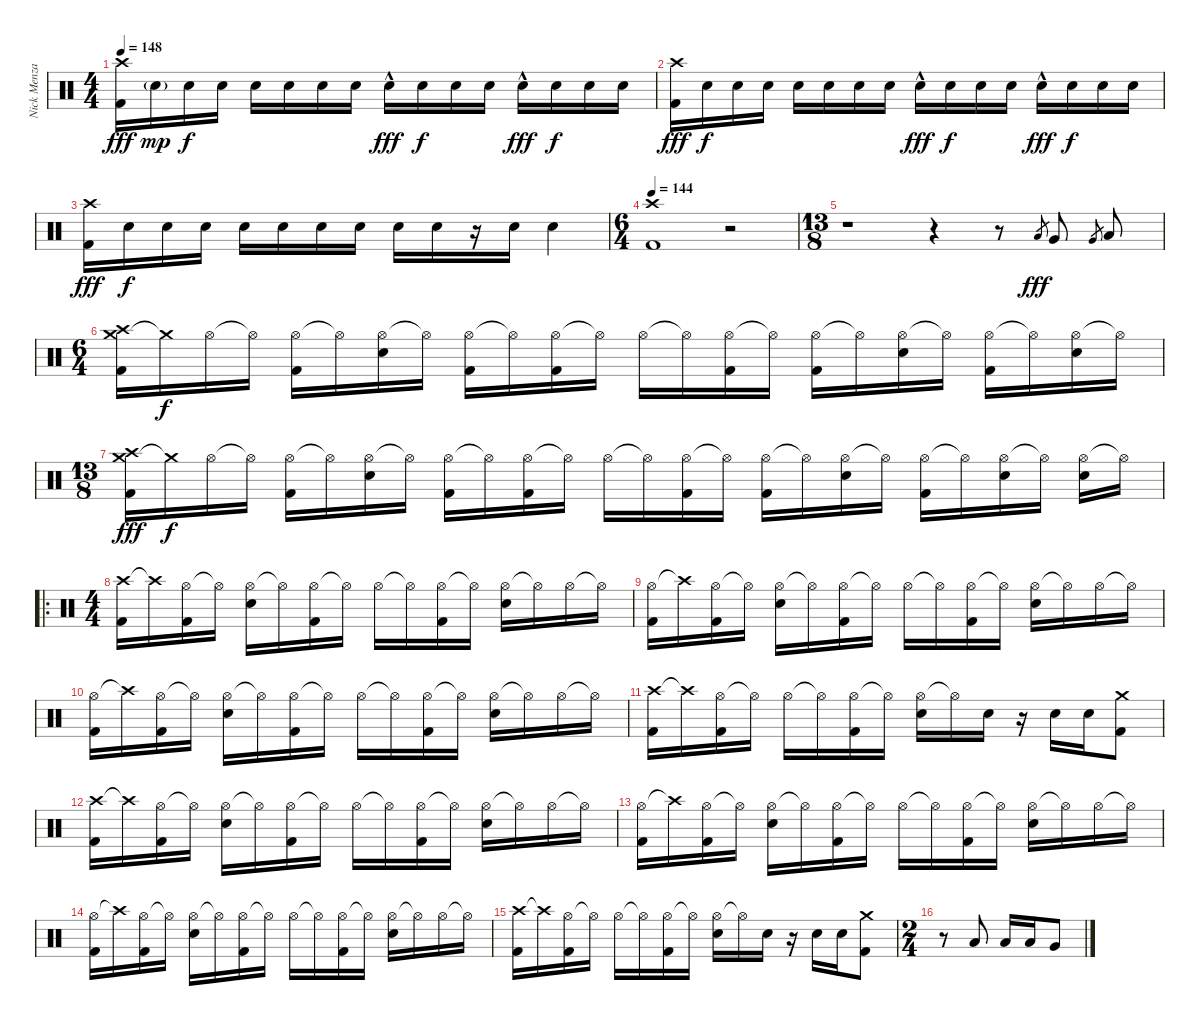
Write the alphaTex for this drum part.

\track ("Nick Menza" "Nick Menza") {instrument percussion}
\staff {score}
\articulation defaults
\ts (4 4)
\tempo 148
\clef neutral
\ks c
("Crash high (hit)" "Kick (hit) 2").16{dy fff} "Electric Snare (hit)"{g}.16{dy mp} "Electric Snare (hit)".16{dy f} "Electric Snare (hit)".16 "Electric Snare (hit)".16 "Electric Snare (hit)".16 "Electric Snare (hit)".16 "Electric Snare (hit)".16 "Electric Snare (hit)"{hac}.16{dy fff} "Electric Snare (hit)".16{dy f} "Electric Snare (hit)".16 "Electric Snare (hit)".16 "Electric Snare (hit)"{hac}.16{dy fff} "Electric Snare (hit)".16{dy f} "Electric Snare (hit)".16 "Electric Snare (hit)".16 |
("Crash high (hit)" "Kick (hit) 2").16{dy fff} "Electric Snare (hit)".16{dy f} "Electric Snare (hit)".16 "Electric Snare (hit)".16 "Electric Snare (hit)".16 "Electric Snare (hit)".16 "Electric Snare (hit)".16 "Electric Snare (hit)".16 "Electric Snare (hit)"{hac}.16{dy fff} "Electric Snare (hit)".16{dy f} "Electric Snare (hit)".16 "Electric Snare (hit)".16 "Electric Snare (hit)"{hac}.16{dy fff} "Electric Snare (hit)".16{dy f} "Electric Snare (hit)".16 "Electric Snare (hit)".16 |
("Crash high (hit)" "Kick (hit) 2").16{dy fff} "Electric Snare (hit)".16{dy f} "Electric Snare (hit)".16 "Electric Snare (hit)".16 "Electric Snare (hit)".16 "Electric Snare (hit)".16 "Electric Snare (hit)".16 "Electric Snare (hit)".16 "Electric Snare (hit)".16 "Electric Snare (hit)".16 r.16 "Electric Snare (hit)".16 "Electric Snare (hit)".4 |
\ts (6 4)
\tempo 144
("Crash high (hit)" "Kick (hit) 2").1 r.2 |
\ts (13 8)
r.1 r.4 r.8 "Low Tom (hit)".8{gr dy fff} "Very Low Tom (hit)".8 "Very Low Tom (hit)".8{gr} "Low Floor Tom (hit)".8 |
\ts (6 4)
("Crash medium (hit)" "Crash high (hit)" "Kick (hit) 2").16 "Crash medium (hit)"{t}.16{dy f} "Hi-Hat (open)".16 "Hi-Hat (open)"{t}.16 ("Hi-Hat (open)" "Kick (hit) 2").16 "Hi-Hat (open)"{t}.16 ("Hi-Hat (open)" "Electric Snare (hit)").16 "Hi-Hat (open)"{t}.16 ("Hi-Hat (open)" "Kick (hit) 2").16 "Hi-Hat (open)"{t}.16 ("Hi-Hat (open)" "Kick (hit) 2").16 "Hi-Hat (open)"{t}.16 "Hi-Hat (open)".16 "Hi-Hat (open)"{t}.16 ("Hi-Hat (open)" "Kick (hit) 2").16 "Hi-Hat (open)"{t}.16 ("Hi-Hat (open)" "Kick (hit) 2").16 "Hi-Hat (open)"{t}.16 ("Hi-Hat (open)" "Electric Snare (hit)").16 "Hi-Hat (open)"{t}.16 ("Hi-Hat (open)" "Kick (hit) 2").16 "Hi-Hat (open)"{t}.16 ("Hi-Hat (open)" "Electric Snare (hit)").16 "Hi-Hat (open)"{t}.16 |
\ts (13 8)
("Crash medium (hit)" "Crash high (hit)" "Kick (hit) 2").16{dy fff} "Crash medium (hit)"{t}.16{dy f} "Hi-Hat (open)".16 "Hi-Hat (open)"{t}.16 ("Hi-Hat (open)" "Kick (hit) 2").16 "Hi-Hat (open)"{t}.16 ("Hi-Hat (open)" "Electric Snare (hit)").16 "Hi-Hat (open)"{t}.16 ("Hi-Hat (open)" "Kick (hit) 2").16 "Hi-Hat (open)"{t}.16 ("Hi-Hat (open)" "Kick (hit) 2").16 "Hi-Hat (open)"{t}.16 "Hi-Hat (open)".16 "Hi-Hat (open)"{t}.16 ("Hi-Hat (open)" "Kick (hit) 2").16 "Hi-Hat (open)"{t}.16 ("Hi-Hat (open)" "Kick (hit) 2").16 "Hi-Hat (open)"{t}.16 ("Hi-Hat (open)" "Electric Snare (hit)").16 "Hi-Hat (open)"{t}.16 ("Hi-Hat (open)" "Kick (hit) 2").16 "Hi-Hat (open)"{t}.16 ("Hi-Hat (open)" "Electric Snare (hit)").16 "Hi-Hat (open)"{t}.16 ("Hi-Hat (open)" "Electric Snare (hit)").16 "Hi-Hat (open)"{t}.16 |
\ro
\ts (4 4)
("Crash high (hit)" "Kick (hit) 2").16 "Crash high (hit)"{t}.16 ("Hi-Hat (open)" "Kick (hit) 2").16 "Hi-Hat (open)"{t}.16 ("Hi-Hat (open)" "Electric Snare (hit)").16 "Hi-Hat (open)"{t}.16 ("Hi-Hat (open)" "Kick (hit) 2").16 "Hi-Hat (open)"{t}.16 "Hi-Hat (open)".16 "Hi-Hat (open)"{t}.16 ("Hi-Hat (open)" "Kick (hit) 2").16 "Hi-Hat (open)"{t}.16 ("Hi-Hat (open)" "Electric Snare (hit)").16 "Hi-Hat (open)"{t}.16 "Hi-Hat (open)".16 "Hi-Hat (open)"{t}.16 |
("Hi-Hat (open)" "Kick (hit) 2").16 "Crash high (hit)"{t}.16 ("Hi-Hat (open)" "Kick (hit) 2").16 "Hi-Hat (open)"{t}.16 ("Hi-Hat (open)" "Electric Snare (hit)").16 "Hi-Hat (open)"{t}.16 ("Hi-Hat (open)" "Kick (hit) 2").16 "Hi-Hat (open)"{t}.16 "Hi-Hat (open)".16 "Hi-Hat (open)"{t}.16 ("Hi-Hat (open)" "Kick (hit) 2").16 "Hi-Hat (open)"{t}.16 ("Hi-Hat (open)" "Electric Snare (hit)").16 "Hi-Hat (open)"{t}.16 "Hi-Hat (open)".16 "Hi-Hat (open)"{t}.16 |
("Hi-Hat (open)" "Kick (hit) 2").16 "Crash high (hit)"{t}.16 ("Hi-Hat (open)" "Kick (hit) 2").16 "Hi-Hat (open)"{t}.16 ("Hi-Hat (open)" "Electric Snare (hit)").16 "Hi-Hat (open)"{t}.16 ("Hi-Hat (open)" "Kick (hit) 2").16 "Hi-Hat (open)"{t}.16 "Hi-Hat (open)".16 "Hi-Hat (open)"{t}.16 ("Hi-Hat (open)" "Kick (hit) 2").16 "Hi-Hat (open)"{t}.16 ("Hi-Hat (open)" "Electric Snare (hit)").16 "Hi-Hat (open)"{t}.16 "Hi-Hat (open)".16 "Hi-Hat (open)"{t}.16 |
("Crash high (hit)" "Kick (hit) 2").16 "Crash high (hit)"{t}.16 ("Hi-Hat (open)" "Kick (hit) 2").16 "Hi-Hat (open)"{t}.16 "Hi-Hat (open)".16 "Hi-Hat (open)"{t}.16 ("Hi-Hat (open)" "Kick (hit) 2").16 "Hi-Hat (open)"{t}.16 ("Hi-Hat (open)" "Electric Snare (hit)").16 "Hi-Hat (open)"{t}.16 "Electric Snare (hit)".16 r.16 "Electric Snare (hit)".16 "Electric Snare (hit)".16 ("Crash medium (hit)" "Kick (hit) 2").8 |
("Crash high (hit)" "Kick (hit) 2").16 "Crash high (hit)"{t}.16 ("Hi-Hat (open)" "Kick (hit) 2").16 "Hi-Hat (open)"{t}.16 ("Hi-Hat (open)" "Electric Snare (hit)").16 "Hi-Hat (open)"{t}.16 ("Hi-Hat (open)" "Kick (hit) 2").16 "Hi-Hat (open)"{t}.16 "Hi-Hat (open)".16 "Hi-Hat (open)"{t}.16 ("Hi-Hat (open)" "Kick (hit) 2").16 "Hi-Hat (open)"{t}.16 ("Hi-Hat (open)" "Electric Snare (hit)").16 "Hi-Hat (open)"{t}.16 "Hi-Hat (open)".16 "Hi-Hat (open)"{t}.16 |
("Hi-Hat (open)" "Kick (hit) 2").16 "Crash high (hit)"{t}.16 ("Hi-Hat (open)" "Kick (hit) 2").16 "Hi-Hat (open)"{t}.16 ("Hi-Hat (open)" "Electric Snare (hit)").16 "Hi-Hat (open)"{t}.16 ("Hi-Hat (open)" "Kick (hit) 2").16 "Hi-Hat (open)"{t}.16 "Hi-Hat (open)".16 "Hi-Hat (open)"{t}.16 ("Hi-Hat (open)" "Kick (hit) 2").16 "Hi-Hat (open)"{t}.16 ("Hi-Hat (open)" "Electric Snare (hit)").16 "Hi-Hat (open)"{t}.16 "Hi-Hat (open)".16 "Hi-Hat (open)"{t}.16 |
("Hi-Hat (open)" "Kick (hit) 2").16 "Crash high (hit)"{t}.16 ("Hi-Hat (open)" "Kick (hit) 2").16 "Hi-Hat (open)"{t}.16 ("Hi-Hat (open)" "Electric Snare (hit)").16 "Hi-Hat (open)"{t}.16 ("Hi-Hat (open)" "Kick (hit) 2").16 "Hi-Hat (open)"{t}.16 "Hi-Hat (open)".16 "Hi-Hat (open)"{t}.16 ("Hi-Hat (open)" "Kick (hit) 2").16 "Hi-Hat (open)"{t}.16 ("Hi-Hat (open)" "Electric Snare (hit)").16 "Hi-Hat (open)"{t}.16 "Hi-Hat (open)".16 "Hi-Hat (open)"{t}.16 |
("Crash high (hit)" "Kick (hit) 2").16 "Crash high (hit)"{t}.16 ("Hi-Hat (open)" "Kick (hit) 2").16 "Hi-Hat (open)"{t}.16 "Hi-Hat (open)".16 "Hi-Hat (open)"{t}.16 ("Hi-Hat (open)" "Kick (hit) 2").16 "Hi-Hat (open)"{t}.16 ("Hi-Hat (open)" "Electric Snare (hit)").16 "Hi-Hat (open)"{t}.16 "Electric Snare (hit)".16 r.16 "Electric Snare (hit)".16 "Electric Snare (hit)".16 ("Crash medium (hit)" "Kick (hit) 2").8 |
\ts (2 4)
r.8 "Low Tom (hit)".8 "Low Tom (hit)".16 "Low Tom (hit)".16 "Very Low Tom (hit)".8
